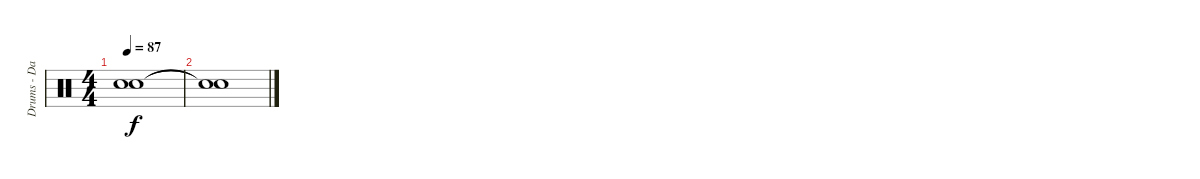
\track ("Drums - Dave Grohl" "Drums - Da") {instrument percussion}
\staff {score}
\articulation defaults
\ts (4 4)
\tempo 87
\clef neutral
\ks c
("Snare (hit)"{t} "Snare (hit)"{t}).1{dy f} |
("Snare (hit)"{t} "Snare (hit)"{t}).1
